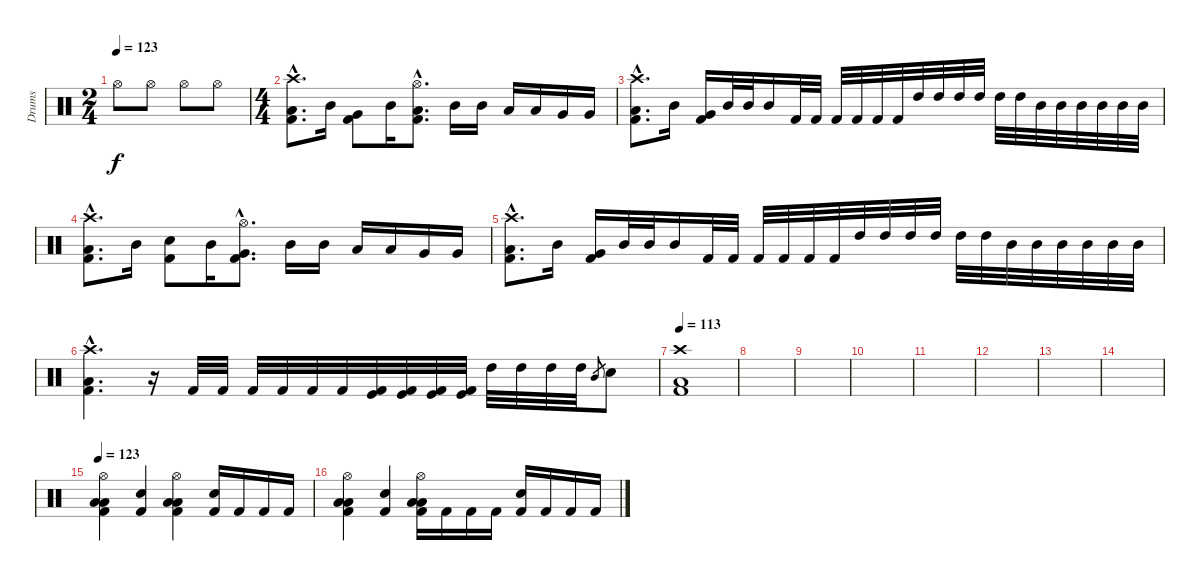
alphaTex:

\track ("Drums" "Drums") {instrument percussion}
\staff {score}
\articulation defaults
\ts (2 4)
\tempo 123
\tempo 103
\tempo 123
\clef neutral
\ks c "Hi-Hat (open)".8{dy f} "Hi-Hat (open)".8 "Hi-Hat (open)".8 "Hi-Hat (open)".8
|
\ts (4 4)
("Crash high (hit)"{hac} "Low Floor Tom (hit)"{hac} "Kick (hit) 2"{hac}).8{d} "Mid Tom (hit)".16 ("Very Low Tom (hit)" "Kick (hit) 2").8 "Mid Tom (hit)".16 ("Hi-Hat (open)"{hac} "Low Floor Tom (hit)"{hac} "Kick (hit) 2"{hac}).8{d} "Mid Tom (hit)".16 "Mid Tom (hit)".16 "Low Tom (hit)".16 "Low Tom (hit)".16 "Very Low Tom (hit)".16 "Very Low Tom (hit)".16 |
("Crash high (hit)"{hac} "Low Floor Tom (hit)"{hac} "Kick (hit) 2"{hac}).8{d} "Mid Tom (hit)".16 ("Very Low Tom (hit)" "Kick (hit) 2").16 "Mid Tom (hit)".32 "Mid Tom (hit)".32 "Mid Tom (hit)".16 "Kick (hit) 2".32 "Kick (hit) 2".32 "Kick (hit) 2".32 "Kick (hit) 2".32 "Kick (hit) 2".32 "Kick (hit) 2".32 "High Tom (hit)".32 "High Tom (hit)".32 "High Tom (hit)".32 "High Tom (hit)".32 "High Tom (hit)".32 "High Tom (hit)".32 "Mid Tom (hit)".32 "Mid Tom (hit)".32 "Mid Tom (hit)".32 "Mid Tom (hit)".32 "Mid Tom (hit)".32 "Mid Tom (hit)".32 |
("Crash high (hit)"{hac} "Low Floor Tom (hit)"{hac} "Kick (hit) 2"{hac}).8{d} "Mid Tom (hit)".16 ("Snare (hit) 2" "Kick (hit) 2").8 "Mid Tom (hit)".16 ("Hi-Hat (open)"{hac} "Very Low Tom (hit)"{hac} "Kick (hit) 2"{hac}).8{d} "Mid Tom (hit)".16 "Mid Tom (hit)".16 "Low Tom (hit)".16 "Low Tom (hit)".16 "Very Low Tom (hit)".16 "Very Low Tom (hit)".16 |
("Crash high (hit)"{hac} "Low Floor Tom (hit)"{hac} "Kick (hit) 2"{hac}).8{d} "Mid Tom (hit)".16 ("Very Low Tom (hit)" "Kick (hit) 2").16 "Mid Tom (hit)".32 "Mid Tom (hit)".32 "Mid Tom (hit)".16 "Kick (hit) 2".32 "Kick (hit) 2".32 "Kick (hit) 2".32 "Kick (hit) 2".32 "Kick (hit) 2".32 "Kick (hit) 2".32 "High Tom (hit)".32 "High Tom (hit)".32 "High Tom (hit)".32 "High Tom (hit)".32 "High Tom (hit)".32 "High Tom (hit)".32 "Mid Tom (hit)".32 "Mid Tom (hit)".32 "Mid Tom (hit)".32 "Mid Tom (hit)".32 "Mid Tom (hit)".32 "Mid Tom (hit)".32 |
("Crash high (hit)"{hac} "Low Tom (hit)"{hac} "Kick (hit) 2"{hac}).4{d} r.16 "Kick (hit) 2".32 "Kick (hit) 2".32 "Kick (hit) 2".32 "Kick (hit) 2".32 "Kick (hit) 2".32 "Kick (hit) 2".32 ("Kick (hit)" "Kick (hit) 2").32 ("Kick (hit)" "Kick (hit) 2").32 ("Kick (hit)" "Kick (hit) 2").32 ("Kick (hit)" "Kick (hit) 2").32 "High Tom (hit)".32 "High Tom (hit)".32 "High Tom (hit)".32 "High Tom (hit)".32 "Mid Tom (hit)".8{gr} "Snare (hit) 2".8 |
\tempo 113
("Crash high (hit)" "Low Floor Tom (hit)" "Kick (hit) 2").1 |
|
|
|
|
|
|
|
\tempo 123
("Hi-Hat (open)" "Low Floor Tom (hit)" "Low Floor Tom (hit)" "Kick (hit) 2").4 ("Snare (hit) 2" "Kick (hit) 2").4 ("Hi-Hat (open)" "Low Floor Tom (hit)" "Low Floor Tom (hit)" "Kick (hit) 2").4 ("Snare (hit) 2" "Kick (hit) 2").16 "Kick (hit) 2".16 "Kick (hit) 2".16 "Kick (hit) 2".16 |
("Hi-Hat (open)" "Low Floor Tom (hit)" "Low Floor Tom (hit)" "Kick (hit) 2").4 ("Snare (hit) 2" "Kick (hit) 2").4 ("Hi-Hat (open)" "Low Floor Tom (hit)" "Low Floor Tom (hit)" "Kick (hit) 2").16 "Kick (hit) 2".16 "Kick (hit) 2".16 "Kick (hit) 2".16 ("Snare (hit) 2" "Kick (hit) 2").16 "Kick (hit) 2".16 "Kick (hit) 2".16 "Kick (hit) 2".16
